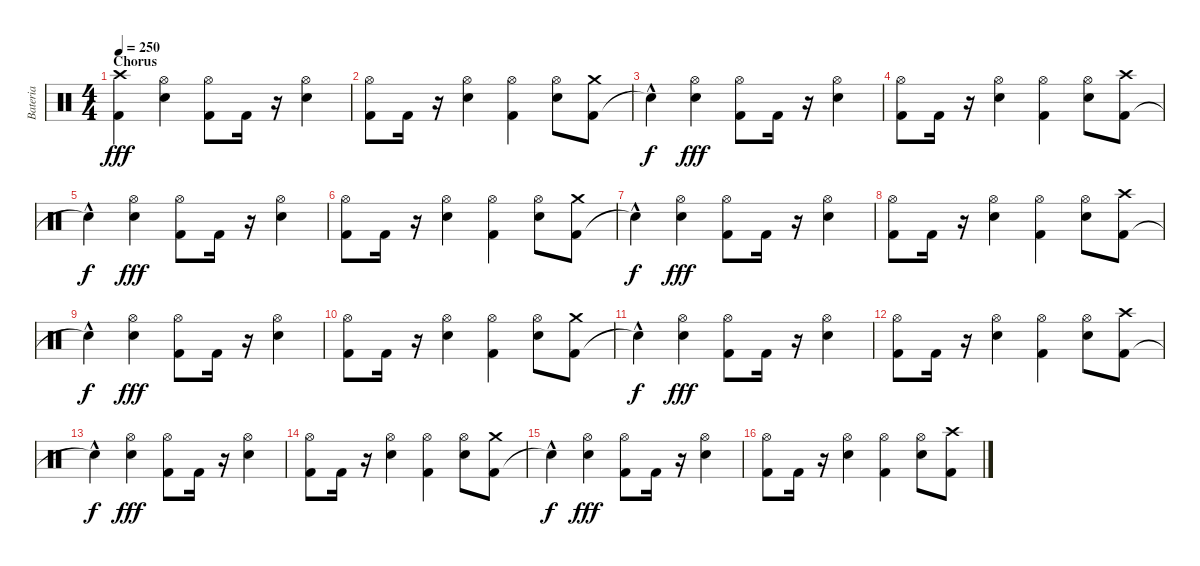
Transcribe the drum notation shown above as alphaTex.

\track ("Bateria" "Bateria") {instrument percussion}
\staff {score}
\articulation defaults
\ts (4 4)
\section ("" "Chorus")
\tempo 250
\clef neutral
\ks c
("Kick (hit) 2" "Crash high (hit)").4{dy fff} ("Electric Snare (hit)" "Hi-Hat (open)").4 ("Kick (hit) 2" "Hi-Hat (open)").8 "Kick (hit) 2".16 r.16 ("Electric Snare (hit)" "Hi-Hat (open)").4 |
("Kick (hit) 2" "Hi-Hat (open)").8 "Kick (hit) 2".16 r.16 ("Electric Snare (hit)" "Hi-Hat (open)").4 ("Kick (hit) 2" "Hi-Hat (open)").4 ("Electric Snare (hit)" "Hi-Hat (open)").8 ("Kick (hit) 2" "Crash medium (hit)").8 |
"Snare (hit)"{hac t}.4{dy f} ("Electric Snare (hit)" "Hi-Hat (open)").4{dy fff} ("Kick (hit) 2" "Hi-Hat (open)").8 "Kick (hit) 2".16 r.16 ("Electric Snare (hit)" "Hi-Hat (open)").4 |
("Kick (hit) 2" "Hi-Hat (open)").8 "Kick (hit) 2".16 r.16 ("Electric Snare (hit)" "Hi-Hat (open)").4 ("Kick (hit) 2" "Hi-Hat (open)").4 ("Electric Snare (hit)" "Hi-Hat (open)").8 ("Kick (hit) 2" "Crash high (hit)").8 |
"Snare (hit)"{hac t}.4{dy f} ("Electric Snare (hit)" "Hi-Hat (open)").4{dy fff} ("Kick (hit) 2" "Hi-Hat (open)").8 "Kick (hit) 2".16 r.16 ("Electric Snare (hit)" "Hi-Hat (open)").4 |
("Kick (hit) 2" "Hi-Hat (open)").8 "Kick (hit) 2".16 r.16 ("Electric Snare (hit)" "Hi-Hat (open)").4 ("Kick (hit) 2" "Hi-Hat (open)").4 ("Electric Snare (hit)" "Hi-Hat (open)").8 ("Kick (hit) 2" "Crash medium (hit)").8 |
"Snare (hit)"{hac t}.4{dy f} ("Electric Snare (hit)" "Hi-Hat (open)").4{dy fff} ("Kick (hit) 2" "Hi-Hat (open)").8 "Kick (hit) 2".16 r.16 ("Electric Snare (hit)" "Hi-Hat (open)").4 |
("Kick (hit) 2" "Hi-Hat (open)").8 "Kick (hit) 2".16 r.16 ("Electric Snare (hit)" "Hi-Hat (open)").4 ("Kick (hit) 2" "Hi-Hat (open)").4 ("Electric Snare (hit)" "Hi-Hat (open)").8 ("Kick (hit) 2" "Crash high (hit)").8 |
"Snare (hit)"{hac t}.4{dy f} ("Electric Snare (hit)" "Hi-Hat (open)").4{dy fff} ("Kick (hit) 2" "Hi-Hat (open)").8 "Kick (hit) 2".16 r.16 ("Electric Snare (hit)" "Hi-Hat (open)").4 |
("Kick (hit) 2" "Hi-Hat (open)").8 "Kick (hit) 2".16 r.16 ("Electric Snare (hit)" "Hi-Hat (open)").4 ("Kick (hit) 2" "Hi-Hat (open)").4 ("Electric Snare (hit)" "Hi-Hat (open)").8 ("Kick (hit) 2" "Crash medium (hit)").8 |
"Snare (hit)"{hac t}.4{dy f} ("Electric Snare (hit)" "Hi-Hat (open)").4{dy fff} ("Kick (hit) 2" "Hi-Hat (open)").8 "Kick (hit) 2".16 r.16 ("Electric Snare (hit)" "Hi-Hat (open)").4 |
("Kick (hit) 2" "Hi-Hat (open)").8 "Kick (hit) 2".16 r.16 ("Electric Snare (hit)" "Hi-Hat (open)").4 ("Kick (hit) 2" "Hi-Hat (open)").4 ("Electric Snare (hit)" "Hi-Hat (open)").8 ("Kick (hit) 2" "Crash high (hit)").8 |
"Snare (hit)"{hac t}.4{dy f} ("Electric Snare (hit)" "Hi-Hat (open)").4{dy fff} ("Kick (hit) 2" "Hi-Hat (open)").8 "Kick (hit) 2".16 r.16 ("Electric Snare (hit)" "Hi-Hat (open)").4 |
("Kick (hit) 2" "Hi-Hat (open)").8 "Kick (hit) 2".16 r.16 ("Electric Snare (hit)" "Hi-Hat (open)").4 ("Kick (hit) 2" "Hi-Hat (open)").4 ("Electric Snare (hit)" "Hi-Hat (open)").8 ("Kick (hit) 2" "Crash medium (hit)").8 |
"Snare (hit)"{hac t}.4{dy f} ("Electric Snare (hit)" "Hi-Hat (open)").4{dy fff} ("Kick (hit) 2" "Hi-Hat (open)").8 "Kick (hit) 2".16 r.16 ("Electric Snare (hit)" "Hi-Hat (open)").4 |
("Kick (hit) 2" "Hi-Hat (open)").8 "Kick (hit) 2".16 r.16 ("Electric Snare (hit)" "Hi-Hat (open)").4 ("Kick (hit) 2" "Hi-Hat (open)").4 ("Electric Snare (hit)" "Hi-Hat (open)").8 ("Kick (hit) 2" "Crash high (hit)").8
